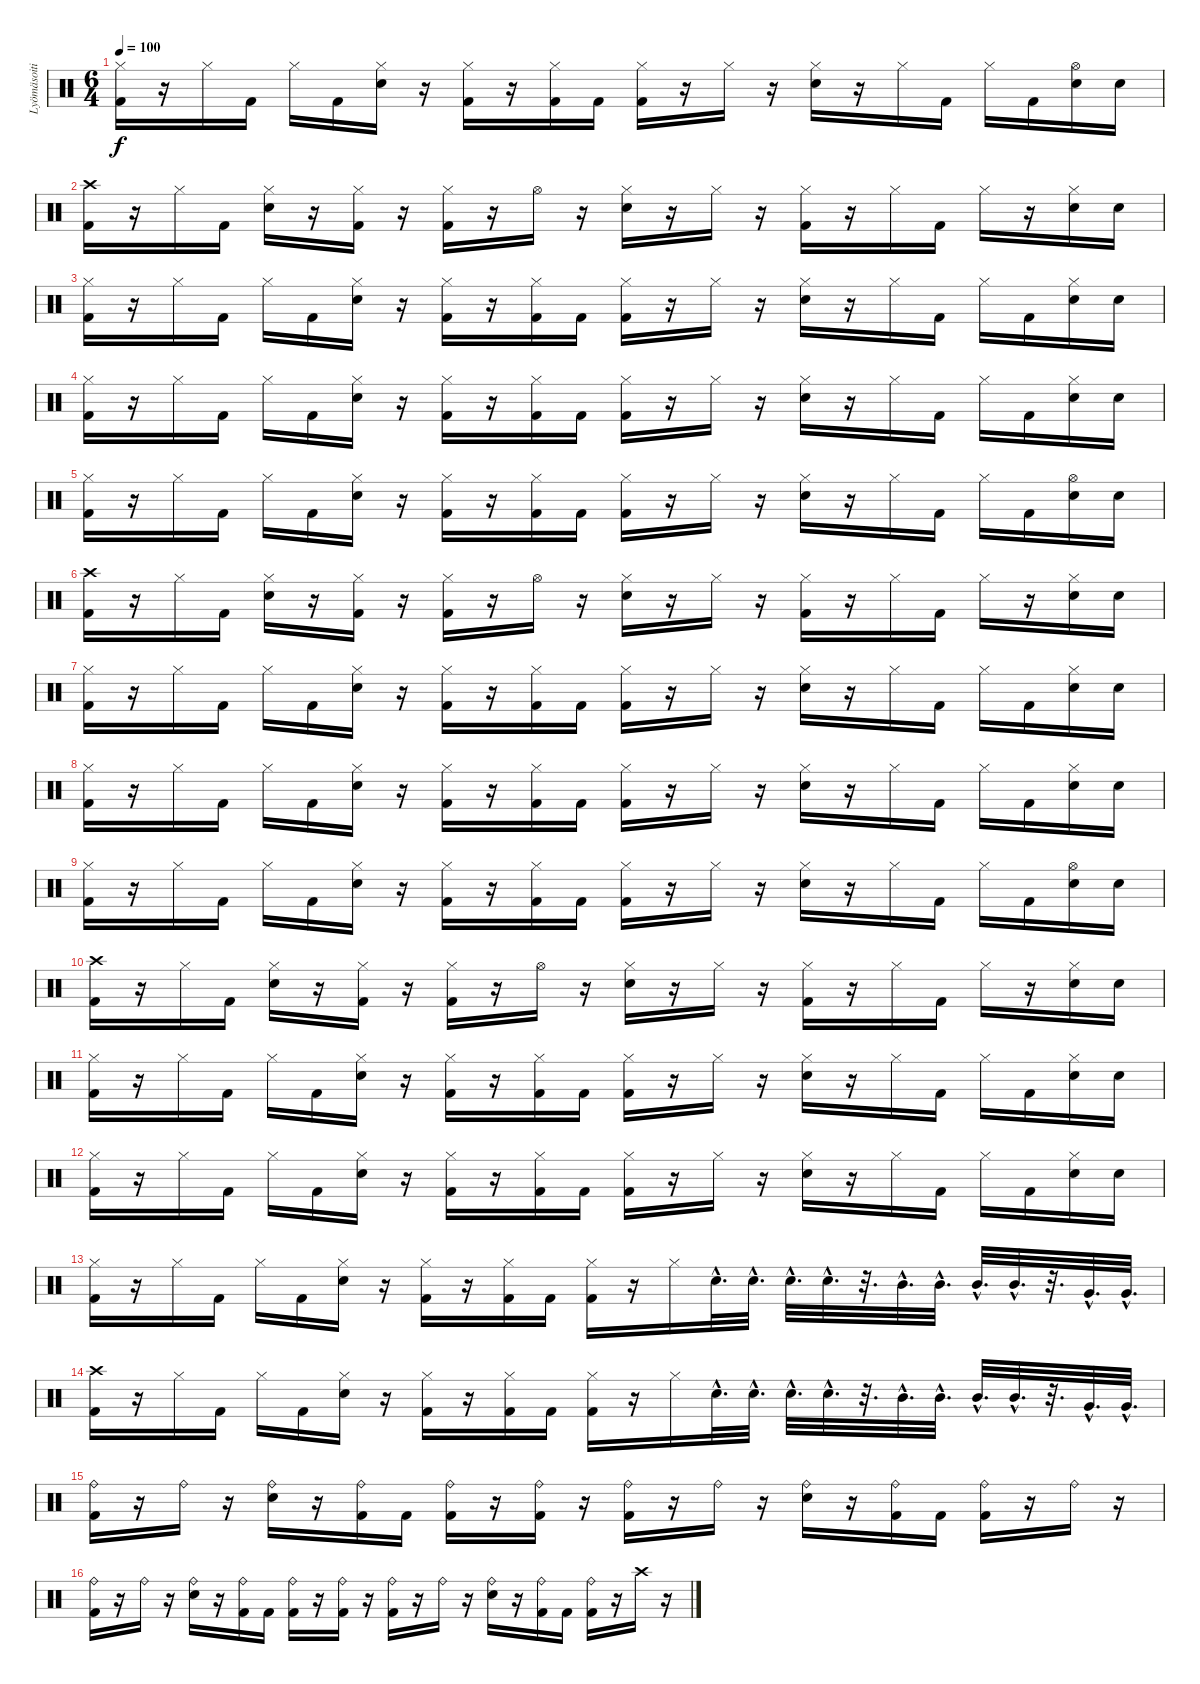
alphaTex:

\track ("Lyömäsoitin" "Lyömäsoiti") {instrument percussion}
\staff {score}
\articulation defaults
\ts (6 4)
\tempo 100
\clef neutral
\ks c
("Hi-Hat (closed)" "Kick (hit) 2").16{dy f} r.16 "Hi-Hat (closed)".16 "Kick (hit) 2".16 "Hi-Hat (closed)".16 "Kick (hit) 2".16 ("Hi-Hat (closed)" "Snare (hit) 2").16 r.16 ("Hi-Hat (closed)" "Kick (hit) 2").16 r.16 ("Hi-Hat (closed)" "Kick (hit) 2").16 "Kick (hit) 2".16 ("Hi-Hat (closed)" "Kick (hit) 2").16 r.16 "Hi-Hat (closed)".16 r.16 ("Hi-Hat (closed)" "Snare (hit) 2").16 r.16 "Hi-Hat (closed)".16 "Kick (hit) 2".16 "Hi-Hat (closed)".16 "Kick (hit) 2".16 ("Hi-Hat (open)" "Snare (hit) 2").16 "Snare (hit) 2".16 |
("Crash high (hit)" "Kick (hit) 2").16 r.16 "Hi-Hat (closed)".16 "Kick (hit) 2".16 ("Hi-Hat (closed)" "Snare (hit) 2").16 r.16 ("Hi-Hat (closed)" "Kick (hit) 2").16 r.16 ("Hi-Hat (closed)" "Kick (hit) 2").16 r.16 "Hi-Hat (open)".16 r.16 ("Hi-Hat (closed)" "Snare (hit) 2").16 r.16 "Hi-Hat (closed)".16 r.16 ("Hi-Hat (closed)" "Kick (hit) 2").16 r.16 "Hi-Hat (closed)".16 "Kick (hit) 2".16 "Hi-Hat (closed)".16 r.16 ("Hi-Hat (closed)" "Snare (hit) 2").16 "Snare (hit) 2".16 |
("Hi-Hat (closed)" "Kick (hit) 2").16 r.16 "Hi-Hat (closed)".16 "Kick (hit) 2".16 "Hi-Hat (closed)".16 "Kick (hit) 2".16 ("Hi-Hat (closed)" "Snare (hit) 2").16 r.16 ("Hi-Hat (closed)" "Kick (hit) 2").16 r.16 ("Hi-Hat (closed)" "Kick (hit) 2").16 "Kick (hit) 2".16 ("Hi-Hat (closed)" "Kick (hit) 2").16 r.16 "Hi-Hat (closed)".16 r.16 ("Hi-Hat (closed)" "Snare (hit) 2").16 r.16 "Hi-Hat (closed)".16 "Kick (hit) 2".16 "Hi-Hat (closed)".16 "Kick (hit) 2".16 ("Hi-Hat (closed)" "Snare (hit) 2").16 "Snare (hit) 2".16 |
("Hi-Hat (closed)" "Kick (hit) 2").16 r.16 "Hi-Hat (closed)".16 "Kick (hit) 2".16 "Hi-Hat (closed)".16 "Kick (hit) 2".16 ("Hi-Hat (closed)" "Snare (hit) 2").16 r.16 ("Hi-Hat (closed)" "Kick (hit) 2").16 r.16 ("Hi-Hat (closed)" "Kick (hit) 2").16 "Kick (hit) 2".16 ("Hi-Hat (closed)" "Kick (hit) 2").16 r.16 "Hi-Hat (closed)".16 r.16 ("Hi-Hat (closed)" "Snare (hit) 2").16 r.16 "Hi-Hat (closed)".16 "Kick (hit) 2".16 "Hi-Hat (closed)".16 "Kick (hit) 2".16 ("Hi-Hat (closed)" "Snare (hit) 2").16 "Snare (hit) 2".16 |
("Hi-Hat (closed)" "Kick (hit) 2").16 r.16 "Hi-Hat (closed)".16 "Kick (hit) 2".16 "Hi-Hat (closed)".16 "Kick (hit) 2".16 ("Hi-Hat (closed)" "Snare (hit) 2").16 r.16 ("Hi-Hat (closed)" "Kick (hit) 2").16 r.16 ("Hi-Hat (closed)" "Kick (hit) 2").16 "Kick (hit) 2".16 ("Hi-Hat (closed)" "Kick (hit) 2").16 r.16 "Hi-Hat (closed)".16 r.16 ("Hi-Hat (closed)" "Snare (hit) 2").16 r.16 "Hi-Hat (closed)".16 "Kick (hit) 2".16 "Hi-Hat (closed)".16 "Kick (hit) 2".16 ("Hi-Hat (open)" "Snare (hit) 2").16 "Snare (hit) 2".16 |
("Crash high (hit)" "Kick (hit) 2").16 r.16 "Hi-Hat (closed)".16 "Kick (hit) 2".16 ("Hi-Hat (closed)" "Snare (hit) 2").16 r.16 ("Hi-Hat (closed)" "Kick (hit) 2").16 r.16 ("Hi-Hat (closed)" "Kick (hit) 2").16 r.16 "Hi-Hat (open)".16 r.16 ("Hi-Hat (closed)" "Snare (hit) 2").16 r.16 "Hi-Hat (closed)".16 r.16 ("Hi-Hat (closed)" "Kick (hit) 2").16 r.16 "Hi-Hat (closed)".16 "Kick (hit) 2".16 "Hi-Hat (closed)".16 r.16 ("Hi-Hat (closed)" "Snare (hit) 2").16 "Snare (hit) 2".16 |
("Hi-Hat (closed)" "Kick (hit) 2").16 r.16 "Hi-Hat (closed)".16 "Kick (hit) 2".16 "Hi-Hat (closed)".16 "Kick (hit) 2".16 ("Hi-Hat (closed)" "Snare (hit) 2").16 r.16 ("Hi-Hat (closed)" "Kick (hit) 2").16 r.16 ("Hi-Hat (closed)" "Kick (hit) 2").16 "Kick (hit) 2".16 ("Hi-Hat (closed)" "Kick (hit) 2").16 r.16 "Hi-Hat (closed)".16 r.16 ("Hi-Hat (closed)" "Snare (hit) 2").16 r.16 "Hi-Hat (closed)".16 "Kick (hit) 2".16 "Hi-Hat (closed)".16 "Kick (hit) 2".16 ("Hi-Hat (closed)" "Snare (hit) 2").16 "Snare (hit) 2".16 |
("Hi-Hat (closed)" "Kick (hit) 2").16 r.16 "Hi-Hat (closed)".16 "Kick (hit) 2".16 "Hi-Hat (closed)".16 "Kick (hit) 2".16 ("Hi-Hat (closed)" "Snare (hit) 2").16 r.16 ("Hi-Hat (closed)" "Kick (hit) 2").16 r.16 ("Hi-Hat (closed)" "Kick (hit) 2").16 "Kick (hit) 2".16 ("Hi-Hat (closed)" "Kick (hit) 2").16 r.16 "Hi-Hat (closed)".16 r.16 ("Hi-Hat (closed)" "Snare (hit) 2").16 r.16 "Hi-Hat (closed)".16 "Kick (hit) 2".16 "Hi-Hat (closed)".16 "Kick (hit) 2".16 ("Hi-Hat (closed)" "Snare (hit) 2").16 "Snare (hit) 2".16 |
("Hi-Hat (closed)" "Kick (hit) 2").16 r.16 "Hi-Hat (closed)".16 "Kick (hit) 2".16 "Hi-Hat (closed)".16 "Kick (hit) 2".16 ("Hi-Hat (closed)" "Snare (hit) 2").16 r.16 ("Hi-Hat (closed)" "Kick (hit) 2").16 r.16 ("Hi-Hat (closed)" "Kick (hit) 2").16 "Kick (hit) 2".16 ("Hi-Hat (closed)" "Kick (hit) 2").16 r.16 "Hi-Hat (closed)".16 r.16 ("Hi-Hat (closed)" "Snare (hit) 2").16 r.16 "Hi-Hat (closed)".16 "Kick (hit) 2".16 "Hi-Hat (closed)".16 "Kick (hit) 2".16 ("Hi-Hat (open)" "Snare (hit) 2").16 "Snare (hit) 2".16 |
("Crash high (hit)" "Kick (hit) 2").16 r.16 "Hi-Hat (closed)".16 "Kick (hit) 2".16 ("Hi-Hat (closed)" "Snare (hit) 2").16 r.16 ("Hi-Hat (closed)" "Kick (hit) 2").16 r.16 ("Hi-Hat (closed)" "Kick (hit) 2").16 r.16 "Hi-Hat (open)".16 r.16 ("Hi-Hat (closed)" "Snare (hit) 2").16 r.16 "Hi-Hat (closed)".16 r.16 ("Hi-Hat (closed)" "Kick (hit) 2").16 r.16 "Hi-Hat (closed)".16 "Kick (hit) 2".16 "Hi-Hat (closed)".16 r.16 ("Hi-Hat (closed)" "Snare (hit) 2").16 "Snare (hit) 2".16 |
("Hi-Hat (closed)" "Kick (hit) 2").16 r.16 "Hi-Hat (closed)".16 "Kick (hit) 2".16 "Hi-Hat (closed)".16 "Kick (hit) 2".16 ("Hi-Hat (closed)" "Snare (hit) 2").16 r.16 ("Hi-Hat (closed)" "Kick (hit) 2").16 r.16 ("Hi-Hat (closed)" "Kick (hit) 2").16 "Kick (hit) 2".16 ("Hi-Hat (closed)" "Kick (hit) 2").16 r.16 "Hi-Hat (closed)".16 r.16 ("Hi-Hat (closed)" "Snare (hit) 2").16 r.16 "Hi-Hat (closed)".16 "Kick (hit) 2".16 "Hi-Hat (closed)".16 "Kick (hit) 2".16 ("Hi-Hat (closed)" "Snare (hit) 2").16 "Snare (hit) 2".16 |
("Hi-Hat (closed)" "Kick (hit) 2").16 r.16 "Hi-Hat (closed)".16 "Kick (hit) 2".16 "Hi-Hat (closed)".16 "Kick (hit) 2".16 ("Hi-Hat (closed)" "Snare (hit) 2").16 r.16 ("Hi-Hat (closed)" "Kick (hit) 2").16 r.16 ("Hi-Hat (closed)" "Kick (hit) 2").16 "Kick (hit) 2".16 ("Hi-Hat (closed)" "Kick (hit) 2").16 r.16 "Hi-Hat (closed)".16 r.16 ("Hi-Hat (closed)" "Snare (hit) 2").16 r.16 "Hi-Hat (closed)".16 "Kick (hit) 2".16 "Hi-Hat (closed)".16 "Kick (hit) 2".16 ("Hi-Hat (closed)" "Snare (hit) 2").16 "Snare (hit) 2".16 |
("Hi-Hat (closed)" "Kick (hit) 2").16 r.16 "Hi-Hat (closed)".16 "Kick (hit) 2".16 "Hi-Hat (closed)".16 "Kick (hit) 2".16 ("Hi-Hat (closed)" "Snare (hit) 2").16 r.16 ("Hi-Hat (closed)" "Kick (hit) 2").16 r.16 ("Hi-Hat (closed)" "Kick (hit) 2").16 "Kick (hit) 2".16 ("Hi-Hat (closed)" "Kick (hit) 2").16 r.16 "Hi-Hat (closed)".16 "Snare (hit) 2"{hac}.32{d} "Snare (hit) 2"{hac}.32{d} "Snare (hit) 2"{hac}.32{d} "Snare (hit) 2"{hac}.32{d} r.32{d} "Mid Tom (hit)"{hac}.32{d} "Mid Tom (hit)"{hac}.32{d} "Mid Tom (hit)"{hac}.32{d} "Mid Tom (hit)"{hac}.32{d} r.32{d} "Very Low Tom (hit)"{hac}.32{d} "Very Low Tom (hit)"{hac}.32{d} |
("Crash high (hit)" "Kick (hit) 2").16 r.16 "Hi-Hat (closed)".16 "Kick (hit) 2".16 "Hi-Hat (closed)".16 "Kick (hit) 2".16 ("Hi-Hat (closed)" "Snare (hit) 2").16 r.16 ("Hi-Hat (closed)" "Kick (hit) 2").16 r.16 ("Hi-Hat (closed)" "Kick (hit) 2").16 "Kick (hit) 2".16 ("Hi-Hat (closed)" "Kick (hit) 2").16 r.16 "Hi-Hat (closed)".16 "Snare (hit) 2"{hac}.32{d} "Snare (hit) 2"{hac}.32{d} "Snare (hit) 2"{hac}.32{d} "Snare (hit) 2"{hac}.32{d} r.32{d} "Mid Tom (hit)"{hac}.32{d} "Mid Tom (hit)"{hac}.32{d} "Mid Tom (hit)"{hac}.32{d} "Mid Tom (hit)"{hac}.32{d} r.32{d} "Very Low Tom (hit)"{hac}.32{d} "Very Low Tom (hit)"{hac}.32{d} |
("Ride (bell)" "Kick (hit) 2").16 r.16 "Ride (bell)".16 r.16 ("Ride (bell)" "Snare (hit) 2").16 r.16 ("Ride (bell)" "Kick (hit) 2").16 "Kick (hit) 2".16 ("Ride (bell)" "Kick (hit) 2").16 r.16 ("Ride (bell)" "Kick (hit) 2").16 r.16 ("Ride (bell)" "Kick (hit) 2").16 r.16 "Ride (bell)".16 r.16 ("Ride (bell)" "Snare (hit) 2").16 r.16 ("Ride (bell)" "Kick (hit) 2").16 "Kick (hit) 2".16 ("Ride (bell)" "Kick (hit) 2").16 r.16 "Ride (bell)".16 r.16 |
("Ride (bell)" "Kick (hit) 2").16 r.16 "Ride (bell)".16 r.16 ("Ride (bell)" "Snare (hit) 2").16 r.16 ("Ride (bell)" "Kick (hit) 2").16 "Kick (hit) 2".16 ("Ride (bell)" "Kick (hit) 2").16 r.16 ("Ride (bell)" "Kick (hit) 2").16 r.16 ("Ride (bell)" "Kick (hit) 2").16 r.16 "Ride (bell)".16 r.16 ("Ride (bell)" "Snare (hit) 2").16 r.16 ("Ride (bell)" "Kick (hit) 2").16 "Kick (hit) 2".16 ("Ride (bell)" "Kick (hit) 2").16 r.16 "Crash high (hit)".16 r.16
